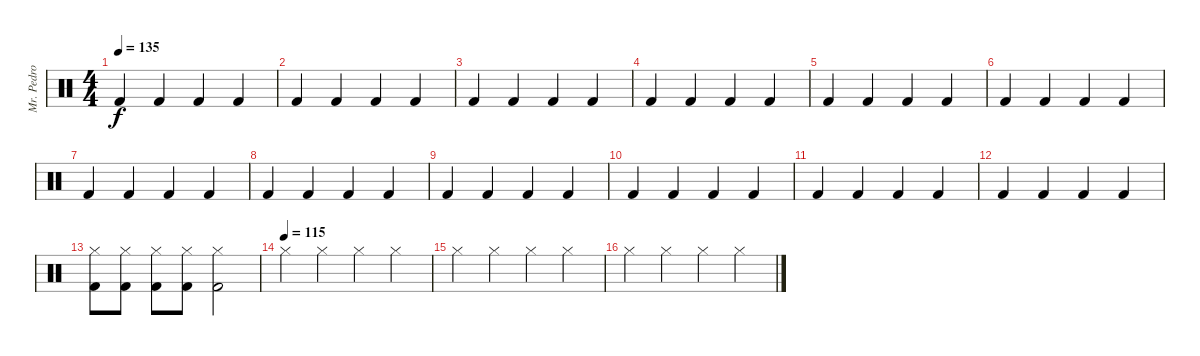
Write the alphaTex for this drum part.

\track ("Mr. Pedro Andreu" "Mr. Pedro ") {instrument percussion}
\staff {score}
\articulation defaults
\ts (4 4)
\tempo 135
\clef neutral
\ks c "Kick (hit) 2".4{dy f} "Kick (hit) 2".4 "Kick (hit) 2".4 "Kick (hit) 2".4
|
"Kick (hit) 2".4 "Kick (hit) 2".4 "Kick (hit) 2".4 "Kick (hit) 2".4 |
"Kick (hit) 2".4 "Kick (hit) 2".4 "Kick (hit) 2".4 "Kick (hit) 2".4 |
"Kick (hit) 2".4 "Kick (hit) 2".4 "Kick (hit) 2".4 "Kick (hit) 2".4 |
"Kick (hit) 2".4 "Kick (hit) 2".4 "Kick (hit) 2".4 "Kick (hit) 2".4 |
"Kick (hit) 2".4 "Kick (hit) 2".4 "Kick (hit) 2".4 "Kick (hit) 2".4 |
"Kick (hit) 2".4 "Kick (hit) 2".4 "Kick (hit) 2".4 "Kick (hit) 2".4 |
"Kick (hit) 2".4 "Kick (hit) 2".4 "Kick (hit) 2".4 "Kick (hit) 2".4 |
"Kick (hit) 2".4 "Kick (hit) 2".4 "Kick (hit) 2".4 "Kick (hit) 2".4 |
"Kick (hit) 2".4 "Kick (hit) 2".4 "Kick (hit) 2".4 "Kick (hit) 2".4 |
"Kick (hit) 2".4 "Kick (hit) 2".4 "Kick (hit) 2".4 "Kick (hit) 2".4 |
"Kick (hit) 2".4 "Kick (hit) 2".4 "Kick (hit) 2".4 "Kick (hit) 2".4 |
("Hi-Hat (closed)" "Kick (hit) 2").8 ("Hi-Hat (closed)" "Kick (hit) 2").8 ("Hi-Hat (closed)" "Kick (hit) 2").8 ("Hi-Hat (closed)" "Kick (hit) 2").8 ("Hi-Hat (closed)" "Kick (hit) 2").2 |
\tempo (115)
"Hi-Hat (closed)".4 "Hi-Hat (closed)".4 "Hi-Hat (closed)".4 "Hi-Hat (closed)".4 |
"Hi-Hat (closed)".4 "Hi-Hat (closed)".4 "Hi-Hat (closed)".4 "Hi-Hat (closed)".4 |
"Hi-Hat (closed)".4 "Hi-Hat (closed)".4 "Hi-Hat (closed)".4 "Hi-Hat (closed)".4
